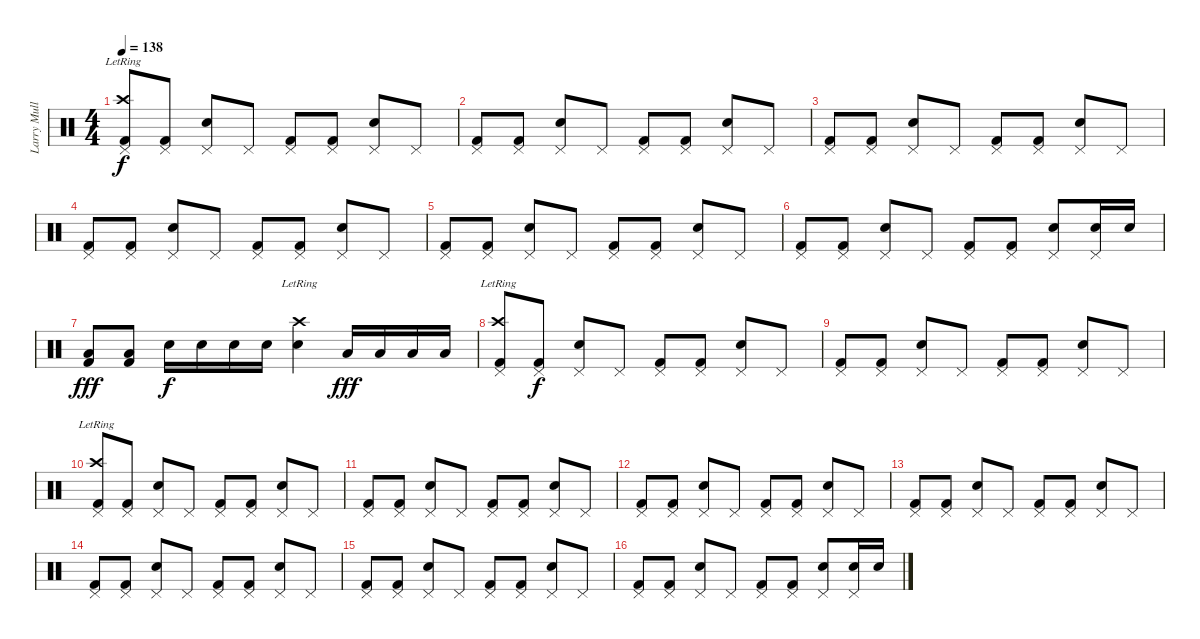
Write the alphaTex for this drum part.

\track ("Larry Mullen" "Larry Mull") {instrument percussion}
\staff {score}
\articulation defaults
\ts (4 4)
\tempo 138
\clef neutral
\ks c
("Kick (hit) 2" "Crash high (hit)"{lr} "Pedal Hi-Hat (hit)").8{dy f} ("Kick (hit) 2" "Pedal Hi-Hat (hit)").8 ("Snare (hit) 2" "Pedal Hi-Hat (hit)").8 "Pedal Hi-Hat (hit)".8 ("Kick (hit) 2" "Pedal Hi-Hat (hit)").8 ("Kick (hit) 2" "Pedal Hi-Hat (hit)").8 ("Snare (hit) 2" "Pedal Hi-Hat (hit)").8 "Pedal Hi-Hat (hit)".8 |
("Kick (hit) 2" "Pedal Hi-Hat (hit)").8 ("Kick (hit) 2" "Pedal Hi-Hat (hit)").8 ("Snare (hit) 2" "Pedal Hi-Hat (hit)").8 "Pedal Hi-Hat (hit)".8 ("Kick (hit) 2" "Pedal Hi-Hat (hit)").8 ("Kick (hit) 2" "Pedal Hi-Hat (hit)").8 ("Snare (hit) 2" "Pedal Hi-Hat (hit)").8 "Pedal Hi-Hat (hit)".8 |
("Kick (hit) 2" "Pedal Hi-Hat (hit)").8 ("Kick (hit) 2" "Pedal Hi-Hat (hit)").8 ("Snare (hit) 2" "Pedal Hi-Hat (hit)").8 "Pedal Hi-Hat (hit)".8 ("Kick (hit) 2" "Pedal Hi-Hat (hit)").8 ("Kick (hit) 2" "Pedal Hi-Hat (hit)").8 ("Snare (hit) 2" "Pedal Hi-Hat (hit)").8 "Pedal Hi-Hat (hit)".8 |
("Kick (hit) 2" "Pedal Hi-Hat (hit)").8 ("Kick (hit) 2" "Pedal Hi-Hat (hit)").8 ("Snare (hit) 2" "Pedal Hi-Hat (hit)").8 "Pedal Hi-Hat (hit)".8 ("Kick (hit) 2" "Pedal Hi-Hat (hit)").8 ("Kick (hit) 2" "Pedal Hi-Hat (hit)").8 ("Snare (hit) 2" "Pedal Hi-Hat (hit)").8 "Pedal Hi-Hat (hit)".8 |
("Kick (hit) 2" "Pedal Hi-Hat (hit)").8 ("Kick (hit) 2" "Pedal Hi-Hat (hit)").8 ("Snare (hit) 2" "Pedal Hi-Hat (hit)").8 "Pedal Hi-Hat (hit)".8 ("Kick (hit) 2" "Pedal Hi-Hat (hit)").8 ("Kick (hit) 2" "Pedal Hi-Hat (hit)").8 ("Snare (hit) 2" "Pedal Hi-Hat (hit)").8 "Pedal Hi-Hat (hit)".8 |
("Kick (hit) 2" "Pedal Hi-Hat (hit)").8 ("Kick (hit) 2" "Pedal Hi-Hat (hit)").8 ("Snare (hit) 2" "Pedal Hi-Hat (hit)").8 "Pedal Hi-Hat (hit)".8 ("Kick (hit) 2" "Pedal Hi-Hat (hit)").8 ("Kick (hit) 2" "Pedal Hi-Hat (hit)").8 ("Snare (hit) 2" "Pedal Hi-Hat (hit)").8 ("Snare (hit) 2" "Pedal Hi-Hat (hit)").16 "Snare (hit) 2".16 |
("Kick (hit) 2" "Low Floor Tom (hit)").8{dy fff} ("Kick (hit) 2" "Low Floor Tom (hit)").8 "Snare (hit) 2".16{dy f} "Snare (hit) 2".16 "Snare (hit) 2".16 "Snare (hit) 2".16 ("Snare (hit) 2" "Crash high (hit)"{lr}).4 "Low Floor Tom (hit)".16{dy fff} "Low Floor Tom (hit)".16 "Low Floor Tom (hit)".16 "Low Floor Tom (hit)".16 |
("Kick (hit) 2" "Crash high (hit)"{lr} "Pedal Hi-Hat (hit)").8 ("Kick (hit) 2" "Pedal Hi-Hat (hit)").8{dy f} ("Snare (hit) 2" "Pedal Hi-Hat (hit)").8 "Pedal Hi-Hat (hit)".8 ("Kick (hit) 2" "Pedal Hi-Hat (hit)").8 ("Kick (hit) 2" "Pedal Hi-Hat (hit)").8 ("Snare (hit) 2" "Pedal Hi-Hat (hit)").8 "Pedal Hi-Hat (hit)".8 |
("Kick (hit) 2" "Pedal Hi-Hat (hit)").8 ("Kick (hit) 2" "Pedal Hi-Hat (hit)").8 ("Snare (hit) 2" "Pedal Hi-Hat (hit)").8 "Pedal Hi-Hat (hit)".8 ("Kick (hit) 2" "Pedal Hi-Hat (hit)").8 ("Kick (hit) 2" "Pedal Hi-Hat (hit)").8 ("Snare (hit) 2" "Pedal Hi-Hat (hit)").8 "Pedal Hi-Hat (hit)".8 |
("Kick (hit) 2" "Crash high (hit)"{lr} "Pedal Hi-Hat (hit)").8 ("Kick (hit) 2" "Pedal Hi-Hat (hit)").8 ("Snare (hit) 2" "Pedal Hi-Hat (hit)").8 "Pedal Hi-Hat (hit)".8 ("Kick (hit) 2" "Pedal Hi-Hat (hit)").8 ("Kick (hit) 2" "Pedal Hi-Hat (hit)").8 ("Snare (hit) 2" "Pedal Hi-Hat (hit)").8 "Pedal Hi-Hat (hit)".8 |
("Kick (hit) 2" "Pedal Hi-Hat (hit)").8 ("Kick (hit) 2" "Pedal Hi-Hat (hit)").8 ("Snare (hit) 2" "Pedal Hi-Hat (hit)").8 "Pedal Hi-Hat (hit)".8 ("Kick (hit) 2" "Pedal Hi-Hat (hit)").8 ("Kick (hit) 2" "Pedal Hi-Hat (hit)").8 ("Snare (hit) 2" "Pedal Hi-Hat (hit)").8 "Pedal Hi-Hat (hit)".8 |
("Kick (hit) 2" "Pedal Hi-Hat (hit)").8 ("Kick (hit) 2" "Pedal Hi-Hat (hit)").8 ("Snare (hit) 2" "Pedal Hi-Hat (hit)").8 "Pedal Hi-Hat (hit)".8 ("Kick (hit) 2" "Pedal Hi-Hat (hit)").8 ("Kick (hit) 2" "Pedal Hi-Hat (hit)").8 ("Snare (hit) 2" "Pedal Hi-Hat (hit)").8 "Pedal Hi-Hat (hit)".8 |
("Kick (hit) 2" "Pedal Hi-Hat (hit)").8 ("Kick (hit) 2" "Pedal Hi-Hat (hit)").8 ("Snare (hit) 2" "Pedal Hi-Hat (hit)").8 "Pedal Hi-Hat (hit)".8 ("Kick (hit) 2" "Pedal Hi-Hat (hit)").8 ("Kick (hit) 2" "Pedal Hi-Hat (hit)").8 ("Snare (hit) 2" "Pedal Hi-Hat (hit)").8 "Pedal Hi-Hat (hit)".8 |
("Kick (hit) 2" "Pedal Hi-Hat (hit)").8 ("Kick (hit) 2" "Pedal Hi-Hat (hit)").8 ("Snare (hit) 2" "Pedal Hi-Hat (hit)").8 "Pedal Hi-Hat (hit)".8 ("Kick (hit) 2" "Pedal Hi-Hat (hit)").8 ("Kick (hit) 2" "Pedal Hi-Hat (hit)").8 ("Snare (hit) 2" "Pedal Hi-Hat (hit)").8 "Pedal Hi-Hat (hit)".8 |
("Kick (hit) 2" "Pedal Hi-Hat (hit)").8 ("Kick (hit) 2" "Pedal Hi-Hat (hit)").8 ("Snare (hit) 2" "Pedal Hi-Hat (hit)").8 "Pedal Hi-Hat (hit)".8 ("Kick (hit) 2" "Pedal Hi-Hat (hit)").8 ("Kick (hit) 2" "Pedal Hi-Hat (hit)").8 ("Snare (hit) 2" "Pedal Hi-Hat (hit)").8 "Pedal Hi-Hat (hit)".8 |
("Kick (hit) 2" "Pedal Hi-Hat (hit)").8 ("Kick (hit) 2" "Pedal Hi-Hat (hit)").8 ("Snare (hit) 2" "Pedal Hi-Hat (hit)").8 "Pedal Hi-Hat (hit)".8 ("Kick (hit) 2" "Pedal Hi-Hat (hit)").8 ("Kick (hit) 2" "Pedal Hi-Hat (hit)").8 ("Snare (hit) 2" "Pedal Hi-Hat (hit)").8 ("Snare (hit) 2" "Pedal Hi-Hat (hit)").16 "Snare (hit) 2".16
